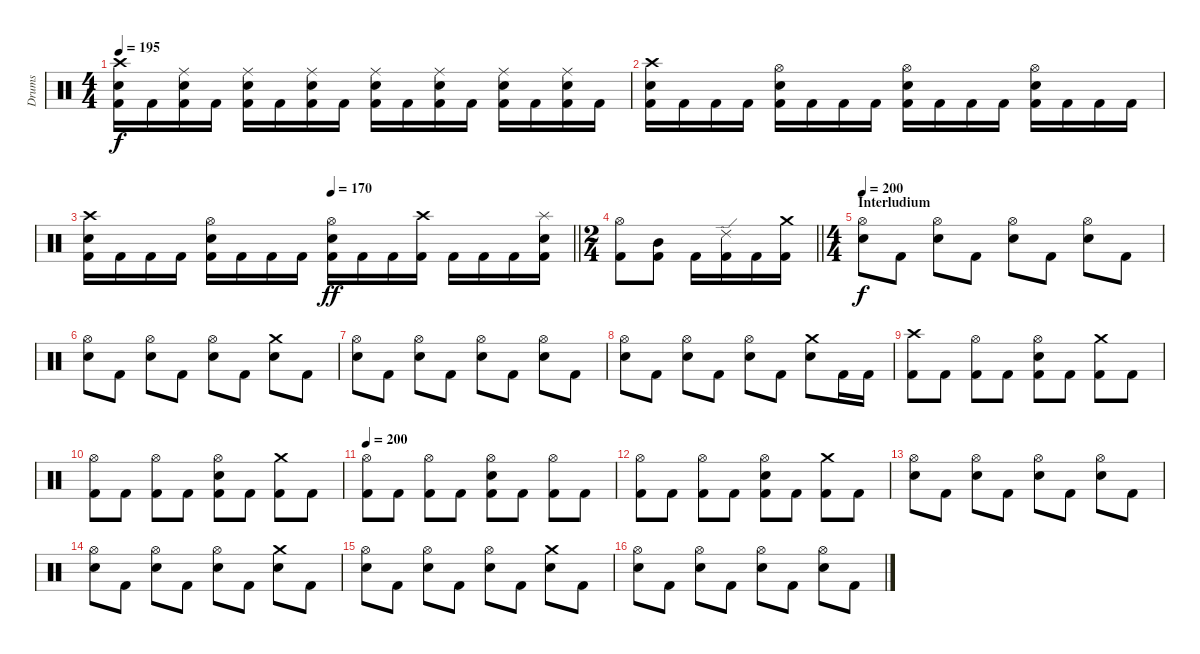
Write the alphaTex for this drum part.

\track ("Drums" "Drums") {instrument percussion}
\staff {score}
\articulation defaults
\ts (4 4)
\tempo 195
\clef neutral
\ks c
("Kick (hit) 2" "Electric Snare (hit)" "Crash high (hit)").16{dy f} "Kick (hit) 2".16 ("Kick (hit) 2" "Electric Snare (hit)" "Ride (middle)").16 "Kick (hit) 2".16 ("Kick (hit) 2" "Electric Snare (hit)" "Ride (middle)").16 "Kick (hit) 2".16 ("Kick (hit) 2" "Electric Snare (hit)" "Ride (middle)").16 "Kick (hit) 2".16 ("Kick (hit) 2" "Electric Snare (hit)" "Ride (middle)").16 "Kick (hit) 2".16 ("Kick (hit) 2" "Electric Snare (hit)" "Ride (middle)").16 "Kick (hit) 2".16 ("Kick (hit) 2" "Electric Snare (hit)" "Ride (middle)").16 "Kick (hit) 2".16 ("Kick (hit) 2" "Electric Snare (hit)" "Ride (middle)").16 "Kick (hit) 2".16 |
("Kick (hit) 2" "Crash high (hit)" "Electric Snare (hit)").16 "Kick (hit) 2".16 "Kick (hit) 2".16 "Kick (hit) 2".16 ("Kick (hit) 2" "Electric Snare (hit)" "Hi-Hat (open)").16 "Kick (hit) 2".16 "Kick (hit) 2".16 "Kick (hit) 2".16 ("Kick (hit) 2" "Electric Snare (hit)" "Hi-Hat (open)").16 "Kick (hit) 2".16 "Kick (hit) 2".16 "Kick (hit) 2".16 ("Kick (hit) 2" "Electric Snare (hit)" "Hi-Hat (open)").16 "Kick (hit) 2".16 "Kick (hit) 2".16 "Kick (hit) 2".16 |
\tempo (170 0.5)
\barLineRight lightlight
("Kick (hit) 2" "Crash high (hit)" "Electric Snare (hit)").16 "Kick (hit) 2".16 "Kick (hit) 2".16 "Kick (hit) 2".16 ("Kick (hit) 2" "Electric Snare (hit)" "Hi-Hat (open)").16 "Kick (hit) 2".16 "Kick (hit) 2".16 "Kick (hit) 2".16 ("Kick (hit) 2" "Electric Snare (hit)" "Hi-Hat (open)").16{dy ff} "Kick (hit) 2".16 "Kick (hit) 2".16 ("Kick (hit) 2" "Crash high (hit)").16 "Kick (hit) 2".16 "Kick (hit) 2".16 "Kick (hit) 2".16 ("Kick (hit) 2" "Electric Snare (hit)" "Splash (hit)").16 |
\ts (2 4)
\barLineRight lightlight
("Kick (hit) 2" "Hi-Hat (open)").8 ("Kick (hit) 2" "Mid Tom (hit)").8 "Kick (hit) 2".16 ("Kick (hit) 2" "Ride (edge) 2").16 "Kick (hit) 2".16 ("Kick (hit) 2" "Crash medium (hit)").16 |
\ts (4 4)
\section ("" "Interludium")
\tempo 200
("Hi-Hat (open)" "Electric Snare (hit)").8{dy f} "Kick (hit) 2".8 ("Hi-Hat (open)" "Electric Snare (hit)").8 "Kick (hit) 2".8 ("Hi-Hat (open)" "Electric Snare (hit)").8 "Kick (hit) 2".8 ("Hi-Hat (open)" "Electric Snare (hit)").8 "Kick (hit) 2".8 |
("Hi-Hat (open)" "Electric Snare (hit)").8 "Kick (hit) 2".8 ("Hi-Hat (open)" "Electric Snare (hit)").8 "Kick (hit) 2".8 ("Hi-Hat (open)" "Electric Snare (hit)").8 "Kick (hit) 2".8 ("Crash medium (hit)" "Electric Snare (hit)").8 "Kick (hit) 2".8 |
("Hi-Hat (open)" "Electric Snare (hit)").8 "Kick (hit) 2".8 ("Hi-Hat (open)" "Electric Snare (hit)").8 "Kick (hit) 2".8 ("Hi-Hat (open)" "Electric Snare (hit)").8 "Kick (hit) 2".8 ("Hi-Hat (open)" "Electric Snare (hit)").8 "Kick (hit) 2".8 |
("Hi-Hat (open)" "Electric Snare (hit)").8 "Kick (hit) 2".8 ("Hi-Hat (open)" "Electric Snare (hit)").8 "Kick (hit) 2".8 ("Hi-Hat (open)" "Electric Snare (hit)").8 "Kick (hit) 2".8 ("Crash medium (hit)" "Electric Snare (hit)").8 "Kick (hit) 2".16 "Kick (hit) 2".16 |
("Crash high (hit)" "Kick (hit) 2").8 "Kick (hit) 2".8 ("Hi-Hat (open)" "Kick (hit) 2").8 "Kick (hit) 2".8 ("Hi-Hat (open)" "Electric Snare (hit)" "Kick (hit) 2").8 "Kick (hit) 2".8 ("Crash medium (hit)" "Kick (hit) 2").8 "Kick (hit) 2".8 |
("Hi-Hat (open)" "Kick (hit) 2").8 "Kick (hit) 2".8 ("Hi-Hat (open)" "Kick (hit) 2").8 "Kick (hit) 2".8 ("Hi-Hat (open)" "Electric Snare (hit)" "Kick (hit) 2").8 "Kick (hit) 2".8 ("Crash medium (hit)" "Kick (hit) 2").8 "Kick (hit) 2".8 |
\tempo 200
("Hi-Hat (open)" "Kick (hit) 2").8 "Kick (hit) 2".8 ("Hi-Hat (open)" "Kick (hit) 2").8 "Kick (hit) 2".8 ("Hi-Hat (open)" "Electric Snare (hit)" "Kick (hit) 2").8 "Kick (hit) 2".8 ("Hi-Hat (open)" "Kick (hit) 2").8 "Kick (hit) 2".8 |
("Hi-Hat (open)" "Kick (hit) 2").8 "Kick (hit) 2".8 ("Hi-Hat (open)" "Kick (hit) 2").8 "Kick (hit) 2".8 ("Hi-Hat (open)" "Electric Snare (hit)" "Kick (hit) 2").8 "Kick (hit) 2".8 ("Crash medium (hit)" "Kick (hit) 2").8 "Kick (hit) 2".8 |
("Hi-Hat (open)" "Electric Snare (hit)").8 "Kick (hit) 2".8 ("Hi-Hat (open)" "Electric Snare (hit)").8 "Kick (hit) 2".8 ("Hi-Hat (open)" "Electric Snare (hit)").8 "Kick (hit) 2".8 ("Hi-Hat (open)" "Electric Snare (hit)").8 "Kick (hit) 2".8 |
("Hi-Hat (open)" "Electric Snare (hit)").8 "Kick (hit) 2".8 ("Hi-Hat (open)" "Electric Snare (hit)").8 "Kick (hit) 2".8 ("Hi-Hat (open)" "Electric Snare (hit)").8 "Kick (hit) 2".8 ("Crash medium (hit)" "Electric Snare (hit)").8 "Kick (hit) 2".8 |
("Hi-Hat (open)" "Electric Snare (hit)").8 "Kick (hit) 2".8 ("Hi-Hat (open)" "Electric Snare (hit)").8 "Kick (hit) 2".8 ("Hi-Hat (open)" "Electric Snare (hit)").8 "Kick (hit) 2".8 ("Crash medium (hit)" "Electric Snare (hit)").8 "Kick (hit) 2".8 |
("Hi-Hat (open)" "Electric Snare (hit)").8 "Kick (hit) 2".8 ("Hi-Hat (open)" "Electric Snare (hit)").8 "Kick (hit) 2".8 ("Hi-Hat (open)" "Electric Snare (hit)").8 "Kick (hit) 2".8 ("Hi-Hat (open)" "Electric Snare (hit)").8 "Kick (hit) 2".8
